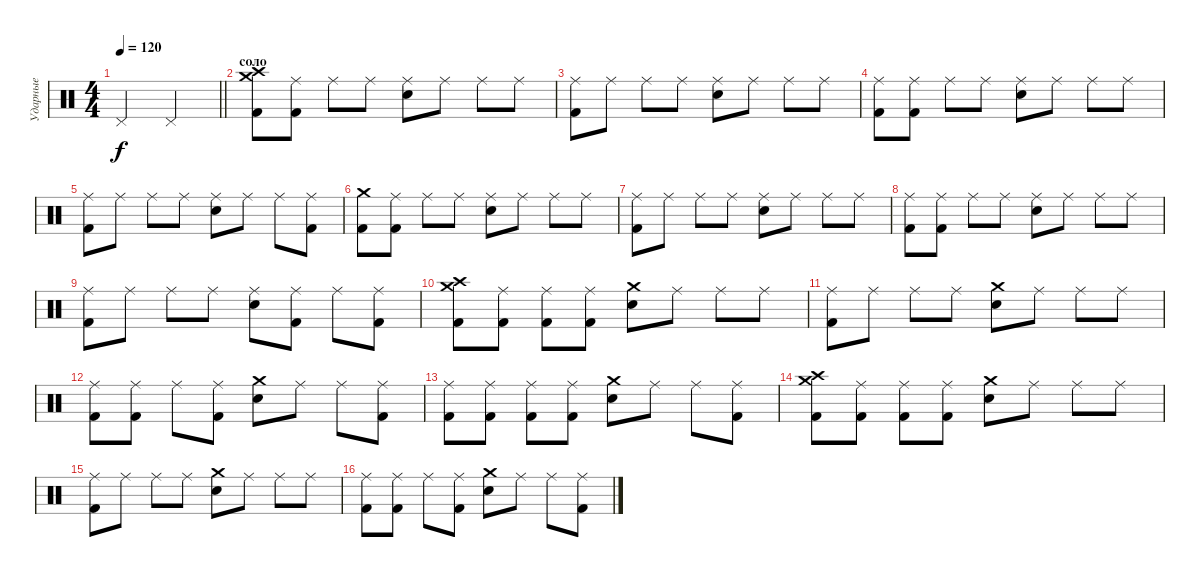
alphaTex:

\track ("Ударные" "Ударные") {instrument percussion}
\staff {score}
\articulation defaults
\ts (4 4)
\tempo 120
\clef neutral
\barLineRight lightlight
\ks c "Pedal Hi-Hat (hit)".2{dy f} "Pedal Hi-Hat (hit)".2
|
\section ("" "соло")
("Crash medium (hit)" "Crash high (hit)" "Kick (hit) 2").8 ("Ride (middle)" "Kick (hit) 2").8 "Ride (middle)".8 "Ride (middle)".8 ("Ride (middle)" "Snare (hit) 2").8 "Ride (middle)".8 "Ride (middle)".8 "Ride (middle)".8 |
("Ride (middle)" "Kick (hit) 2").8 "Ride (middle)".8 "Ride (middle)".8 "Ride (middle)".8 ("Ride (middle)" "Snare (hit) 2").8 "Ride (middle)".8 "Ride (middle)".8 "Ride (middle)".8 |
("Ride (middle)" "Kick (hit) 2").8 ("Ride (middle)" "Kick (hit) 2").8 "Ride (middle)".8 "Ride (middle)".8 ("Ride (middle)" "Snare (hit) 2").8 "Ride (middle)".8 "Ride (middle)".8 "Ride (middle)".8 |
("Ride (middle)" "Kick (hit) 2").8 "Ride (middle)".8 "Ride (middle)".8 "Ride (middle)".8 ("Ride (middle)" "Snare (hit) 2").8 "Ride (middle)".8 "Ride (middle)".8 ("Ride (middle)" "Kick (hit) 2").8 |
("Crash medium (hit)" "Kick (hit) 2").8 ("Ride (middle)" "Kick (hit) 2").8 "Ride (middle)".8 "Ride (middle)".8 ("Ride (middle)" "Snare (hit) 2").8 "Ride (middle)".8 "Ride (middle)".8 "Ride (middle)".8 |
("Ride (middle)" "Kick (hit) 2").8 "Ride (middle)".8 "Ride (middle)".8 "Ride (middle)".8 ("Ride (middle)" "Snare (hit) 2").8 "Ride (middle)".8 "Ride (middle)".8 "Ride (middle)".8 |
("Ride (middle)" "Kick (hit) 2").8 ("Ride (middle)" "Kick (hit) 2").8 "Ride (middle)".8 "Ride (middle)".8 ("Ride (middle)" "Snare (hit) 2").8 "Ride (middle)".8 "Ride (middle)".8 "Ride (middle)".8 |
("Ride (middle)" "Kick (hit) 2").8 "Ride (middle)".8 "Ride (middle)".8 "Ride (middle)".8 ("Ride (middle)" "Snare (hit) 2").8 ("Ride (middle)" "Kick (hit) 2").8 "Ride (middle)".8 ("Ride (middle)" "Kick (hit) 2").8 |
("Crash medium (hit)" "Crash high (hit)" "Kick (hit) 2").8 ("Ride (middle)" "Kick (hit) 2").8 ("Ride (middle)" "Kick (hit) 2").8 ("Ride (middle)" "Kick (hit) 2").8 ("Crash medium (hit)" "Snare (hit) 2").8 "Ride (middle)".8 "Ride (middle)".8 "Ride (middle)".8 |
("Ride (middle)" "Kick (hit) 2").8 "Ride (middle)".8 "Ride (middle)".8 "Ride (middle)".8 ("Crash medium (hit)" "Snare (hit) 2").8 "Ride (middle)".8 "Ride (middle)".8 "Ride (middle)".8 |
("Ride (middle)" "Kick (hit) 2").8 ("Ride (middle)" "Kick (hit) 2").8 "Ride (middle)".8 ("Ride (middle)" "Kick (hit) 2").8 ("Crash medium (hit)" "Snare (hit) 2").8 "Ride (middle)".8 "Ride (middle)".8 ("Ride (middle)" "Kick (hit) 2").8 |
("Ride (middle)" "Kick (hit) 2").8 ("Ride (middle)" "Kick (hit) 2").8 ("Ride (middle)" "Kick (hit) 2").8 ("Ride (middle)" "Kick (hit) 2").8 ("Crash medium (hit)" "Snare (hit) 2").8 "Ride (middle)".8 "Ride (middle)".8 ("Ride (middle)" "Kick (hit) 2").8 |
("Crash medium (hit)" "Crash high (hit)" "Kick (hit) 2").8 ("Ride (middle)" "Kick (hit) 2").8 ("Ride (middle)" "Kick (hit) 2").8 ("Ride (middle)" "Kick (hit) 2").8 ("Crash medium (hit)" "Snare (hit) 2").8 "Ride (middle)".8 "Ride (middle)".8 "Ride (middle)".8 |
("Ride (middle)" "Kick (hit) 2").8 "Ride (middle)".8 "Ride (middle)".8 "Ride (middle)".8 ("Crash medium (hit)" "Snare (hit) 2").8 "Ride (middle)".8 "Ride (middle)".8 "Ride (middle)".8 |
("Ride (middle)" "Kick (hit) 2").8 ("Ride (middle)" "Kick (hit) 2").8 "Ride (middle)".8 ("Ride (middle)" "Kick (hit) 2").8 ("Crash medium (hit)" "Snare (hit) 2").8 "Ride (middle)".8 "Ride (middle)".8 ("Ride (middle)" "Kick (hit) 2").8
